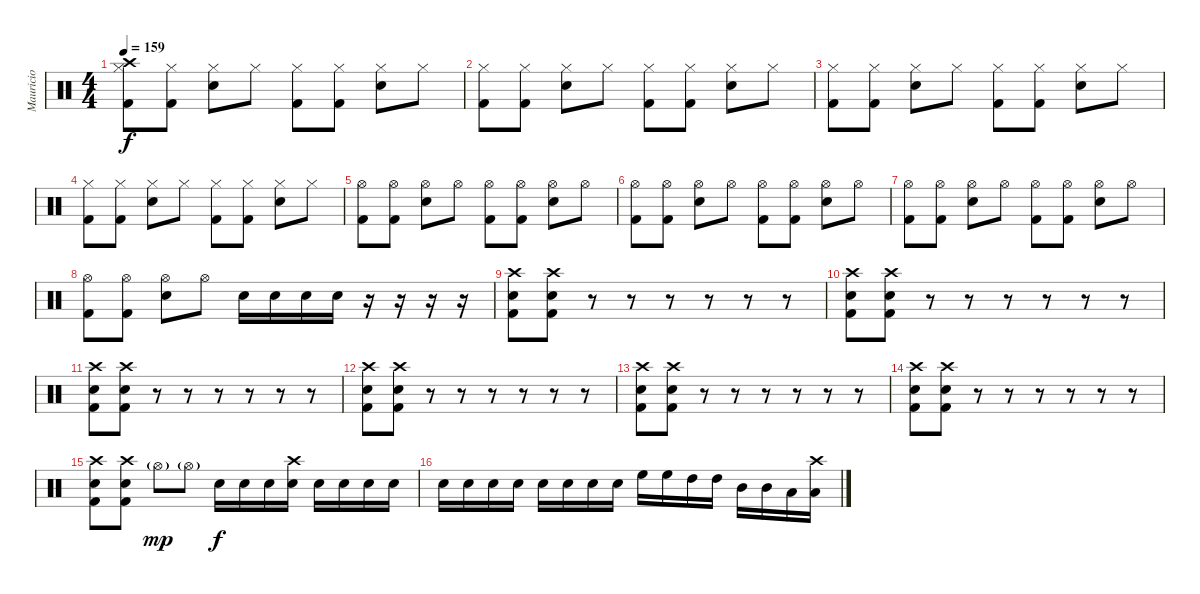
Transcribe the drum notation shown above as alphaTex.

\track ("Mauricio" "Mauricio") {instrument percussion}
\staff {score}
\articulation defaults
\ts (4 4)
\tempo 159
\clef neutral
\ks c
("Crash high (hit)" "Hi-Hat (closed)" "Kick (hit) 2").8{dy f} ("Hi-Hat (closed)" "Kick (hit) 2").8 ("Hi-Hat (closed)" "Snare (hit) 2").8 "Hi-Hat (closed)".8 ("Hi-Hat (closed)" "Kick (hit) 2").8 ("Hi-Hat (closed)" "Kick (hit) 2").8 ("Hi-Hat (closed)" "Snare (hit) 2").8 "Hi-Hat (closed)".8 |
("Hi-Hat (closed)" "Kick (hit) 2").8 ("Hi-Hat (closed)" "Kick (hit) 2").8 ("Hi-Hat (closed)" "Snare (hit) 2").8 "Hi-Hat (closed)".8 ("Hi-Hat (closed)" "Kick (hit) 2").8 ("Hi-Hat (closed)" "Kick (hit) 2").8 ("Hi-Hat (closed)" "Snare (hit) 2").8 "Hi-Hat (closed)".8 |
("Hi-Hat (closed)" "Kick (hit) 2").8 ("Hi-Hat (closed)" "Kick (hit) 2").8 ("Hi-Hat (closed)" "Snare (hit) 2").8 "Hi-Hat (closed)".8 ("Hi-Hat (closed)" "Kick (hit) 2").8 ("Hi-Hat (closed)" "Kick (hit) 2").8 ("Hi-Hat (closed)" "Snare (hit) 2").8 "Hi-Hat (closed)".8 |
("Hi-Hat (closed)" "Kick (hit) 2").8 ("Hi-Hat (closed)" "Kick (hit) 2").8 ("Hi-Hat (closed)" "Snare (hit) 2").8 "Hi-Hat (closed)".8 ("Hi-Hat (closed)" "Kick (hit) 2").8 ("Hi-Hat (closed)" "Kick (hit) 2").8 ("Hi-Hat (closed)" "Snare (hit) 2").8 "Hi-Hat (closed)".8 |
("Hi-Hat (open)" "Kick (hit) 2").8 ("Hi-Hat (open)" "Kick (hit) 2").8 ("Hi-Hat (open)" "Snare (hit) 2").8 "Hi-Hat (open)".8 ("Hi-Hat (open)" "Kick (hit) 2").8 ("Hi-Hat (open)" "Kick (hit) 2").8 ("Hi-Hat (open)" "Snare (hit) 2").8 "Hi-Hat (open)".8 |
("Hi-Hat (open)" "Kick (hit) 2").8 ("Hi-Hat (open)" "Kick (hit) 2").8 ("Hi-Hat (open)" "Snare (hit) 2").8 "Hi-Hat (open)".8 ("Hi-Hat (open)" "Kick (hit) 2").8 ("Hi-Hat (open)" "Kick (hit) 2").8 ("Hi-Hat (open)" "Snare (hit) 2").8 "Hi-Hat (open)".8 |
("Hi-Hat (open)" "Kick (hit) 2").8 ("Hi-Hat (open)" "Kick (hit) 2").8 ("Hi-Hat (open)" "Snare (hit) 2").8 "Hi-Hat (open)".8 ("Hi-Hat (open)" "Kick (hit) 2").8 ("Hi-Hat (open)" "Kick (hit) 2").8 ("Hi-Hat (open)" "Snare (hit) 2").8 "Hi-Hat (open)".8 |
("Hi-Hat (open)" "Kick (hit) 2").8 ("Hi-Hat (open)" "Kick (hit) 2").8 ("Hi-Hat (open)" "Snare (hit) 2").8 "Hi-Hat (open)".8 "Snare (hit) 2".16 "Snare (hit) 2".16 "Snare (hit) 2".16 "Snare (hit) 2".16 r.16 r.16 r.16 r.16 |
("Crash high (hit)" "Snare (hit) 2" "Kick (hit) 2").8 ("Crash high (hit)" "Snare (hit) 2" "Kick (hit) 2").8 r.8 r.8 r.8 r.8 r.8 r.8 |
("Crash high (hit)" "Snare (hit) 2" "Kick (hit) 2").8 ("Crash high (hit)" "Snare (hit) 2" "Kick (hit) 2").8 r.8 r.8 r.8 r.8 r.8 r.8 |
("Crash high (hit)" "Snare (hit) 2" "Kick (hit) 2").8 ("Crash high (hit)" "Snare (hit) 2" "Kick (hit) 2").8 r.8 r.8 r.8 r.8 r.8 r.8 |
("Crash high (hit)" "Snare (hit) 2" "Kick (hit) 2").8 ("Crash high (hit)" "Snare (hit) 2" "Kick (hit) 2").8 r.8 r.8 r.8 r.8 r.8 r.8 |
("Crash high (hit)" "Snare (hit) 2" "Kick (hit) 2").8 ("Crash high (hit)" "Snare (hit) 2" "Kick (hit) 2").8 r.8 r.8 r.8 r.8 r.8 r.8 |
("Crash high (hit)" "Snare (hit) 2" "Kick (hit) 2").8 ("Crash high (hit)" "Snare (hit) 2" "Kick (hit) 2").8 r.8 r.8 r.8 r.8 r.8 r.8 |
("Crash high (hit)" "Snare (hit) 2" "Kick (hit) 2").8 ("Crash high (hit)" "Snare (hit) 2" "Kick (hit) 2").8 "Hi-Hat (open)"{g}.8{dy mp} "Hi-Hat (open)"{g}.8 "Snare (hit) 2".16{dy f} "Snare (hit) 2".16 "Snare (hit) 2".16 ("Crash high (hit)" "Snare (hit) 2").16 "Snare (hit) 2".16 "Snare (hit) 2".16 "Snare (hit) 2".16 "Snare (hit) 2".16 |
"Snare (hit) 2".16 "Snare (hit) 2".16 "Snare (hit) 2".16 "Snare (hit) 2".16 "Snare (hit) 2".16 "Snare (hit) 2".16 "Snare (hit) 2".16 "Snare (hit) 2".16 "High Floor Tom (hit)".16 "High Floor Tom (hit)".16 "High Tom (hit)".16 "High Tom (hit)".16 "Mid Tom (hit)".16 "Mid Tom (hit)".16 "Low Tom (hit)".16 ("Crash high (hit)" "Low Tom (hit)").16
